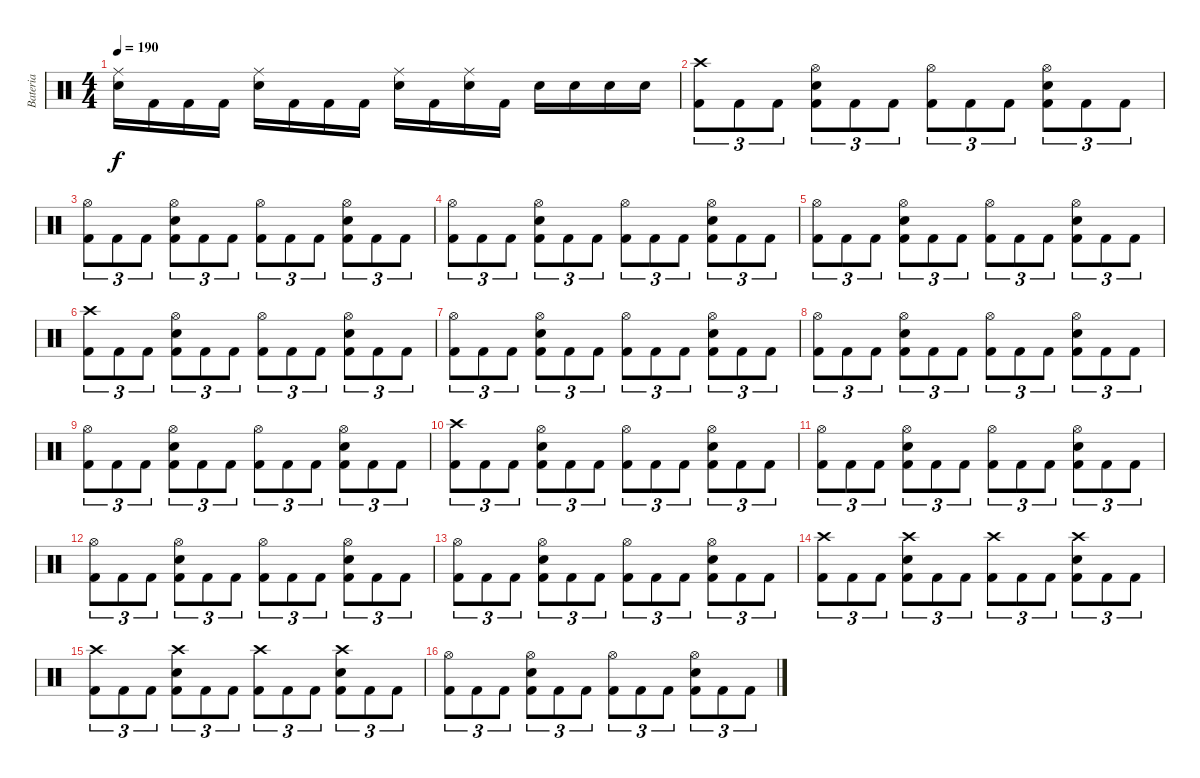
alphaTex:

\track ("Bateria" "Bateria") {instrument percussion}
\staff {score}
\articulation defaults
\ts (4 4)
\tempo 190
\clef neutral
\ks c
("Electric Snare (hit)" "Ride (middle)").16{dy f} "Kick (hit) 2".16 "Kick (hit) 2".16 "Kick (hit) 2".16 ("Electric Snare (hit)" "Ride (middle)").16 "Kick (hit) 2".16 "Kick (hit) 2".16 "Kick (hit) 2".16 ("Electric Snare (hit)" "Ride (middle)").16 "Kick (hit) 2".16 ("Electric Snare (hit)" "Ride (middle)").16 "Kick (hit) 2".16 "Electric Snare (hit)".16 "Electric Snare (hit)".16 "Electric Snare (hit)".16 "Electric Snare (hit)".16 |
("Crash high (hit)" "Kick (hit) 2").8{tu (3 2)} "Kick (hit) 2".8{tu (3 2)} "Kick (hit) 2".8{tu (3 2)} ("Hi-Hat (open)" "Electric Snare (hit)" "Kick (hit) 2").8{tu (3 2)} "Kick (hit) 2".8{tu (3 2)} "Kick (hit) 2".8{tu (3 2)} ("Hi-Hat (open)" "Kick (hit) 2").8{tu (3 2)} "Kick (hit) 2".8{tu (3 2)} "Kick (hit) 2".8{tu (3 2)} ("Hi-Hat (open)" "Electric Snare (hit)" "Kick (hit) 2").8{tu (3 2)} "Kick (hit) 2".8{tu (3 2)} "Kick (hit) 2".8{tu (3 2)} |
("Hi-Hat (open)" "Kick (hit) 2").8{tu (3 2)} "Kick (hit) 2".8{tu (3 2)} "Kick (hit) 2".8{tu (3 2)} ("Hi-Hat (open)" "Electric Snare (hit)" "Kick (hit) 2").8{tu (3 2)} "Kick (hit) 2".8{tu (3 2)} "Kick (hit) 2".8{tu (3 2)} ("Hi-Hat (open)" "Kick (hit) 2").8{tu (3 2)} "Kick (hit) 2".8{tu (3 2)} "Kick (hit) 2".8{tu (3 2)} ("Hi-Hat (open)" "Electric Snare (hit)" "Kick (hit) 2").8{tu (3 2)} "Kick (hit) 2".8{tu (3 2)} "Kick (hit) 2".8{tu (3 2)} |
("Hi-Hat (open)" "Kick (hit) 2").8{tu (3 2)} "Kick (hit) 2".8{tu (3 2)} "Kick (hit) 2".8{tu (3 2)} ("Hi-Hat (open)" "Electric Snare (hit)" "Kick (hit) 2").8{tu (3 2)} "Kick (hit) 2".8{tu (3 2)} "Kick (hit) 2".8{tu (3 2)} ("Hi-Hat (open)" "Kick (hit) 2").8{tu (3 2)} "Kick (hit) 2".8{tu (3 2)} "Kick (hit) 2".8{tu (3 2)} ("Hi-Hat (open)" "Electric Snare (hit)" "Kick (hit) 2").8{tu (3 2)} "Kick (hit) 2".8{tu (3 2)} "Kick (hit) 2".8{tu (3 2)} |
("Hi-Hat (open)" "Kick (hit) 2").8{tu (3 2)} "Kick (hit) 2".8{tu (3 2)} "Kick (hit) 2".8{tu (3 2)} ("Hi-Hat (open)" "Electric Snare (hit)" "Kick (hit) 2").8{tu (3 2)} "Kick (hit) 2".8{tu (3 2)} "Kick (hit) 2".8{tu (3 2)} ("Hi-Hat (open)" "Kick (hit) 2").8{tu (3 2)} "Kick (hit) 2".8{tu (3 2)} "Kick (hit) 2".8{tu (3 2)} ("Hi-Hat (open)" "Electric Snare (hit)" "Kick (hit) 2").8{tu (3 2)} "Kick (hit) 2".8{tu (3 2)} "Kick (hit) 2".8{tu (3 2)} |
("Crash high (hit)" "Kick (hit) 2").8{tu (3 2)} "Kick (hit) 2".8{tu (3 2)} "Kick (hit) 2".8{tu (3 2)} ("Hi-Hat (open)" "Electric Snare (hit)" "Kick (hit) 2").8{tu (3 2)} "Kick (hit) 2".8{tu (3 2)} "Kick (hit) 2".8{tu (3 2)} ("Hi-Hat (open)" "Kick (hit) 2").8{tu (3 2)} "Kick (hit) 2".8{tu (3 2)} "Kick (hit) 2".8{tu (3 2)} ("Hi-Hat (open)" "Electric Snare (hit)" "Kick (hit) 2").8{tu (3 2)} "Kick (hit) 2".8{tu (3 2)} "Kick (hit) 2".8{tu (3 2)} |
("Hi-Hat (open)" "Kick (hit) 2").8{tu (3 2)} "Kick (hit) 2".8{tu (3 2)} "Kick (hit) 2".8{tu (3 2)} ("Hi-Hat (open)" "Electric Snare (hit)" "Kick (hit) 2").8{tu (3 2)} "Kick (hit) 2".8{tu (3 2)} "Kick (hit) 2".8{tu (3 2)} ("Hi-Hat (open)" "Kick (hit) 2").8{tu (3 2)} "Kick (hit) 2".8{tu (3 2)} "Kick (hit) 2".8{tu (3 2)} ("Hi-Hat (open)" "Electric Snare (hit)" "Kick (hit) 2").8{tu (3 2)} "Kick (hit) 2".8{tu (3 2)} "Kick (hit) 2".8{tu (3 2)} |
("Hi-Hat (open)" "Kick (hit) 2").8{tu (3 2)} "Kick (hit) 2".8{tu (3 2)} "Kick (hit) 2".8{tu (3 2)} ("Hi-Hat (open)" "Electric Snare (hit)" "Kick (hit) 2").8{tu (3 2)} "Kick (hit) 2".8{tu (3 2)} "Kick (hit) 2".8{tu (3 2)} ("Hi-Hat (open)" "Kick (hit) 2").8{tu (3 2)} "Kick (hit) 2".8{tu (3 2)} "Kick (hit) 2".8{tu (3 2)} ("Hi-Hat (open)" "Electric Snare (hit)" "Kick (hit) 2").8{tu (3 2)} "Kick (hit) 2".8{tu (3 2)} "Kick (hit) 2".8{tu (3 2)} |
("Hi-Hat (open)" "Kick (hit) 2").8{tu (3 2)} "Kick (hit) 2".8{tu (3 2)} "Kick (hit) 2".8{tu (3 2)} ("Hi-Hat (open)" "Electric Snare (hit)" "Kick (hit) 2").8{tu (3 2)} "Kick (hit) 2".8{tu (3 2)} "Kick (hit) 2".8{tu (3 2)} ("Hi-Hat (open)" "Kick (hit) 2").8{tu (3 2)} "Kick (hit) 2".8{tu (3 2)} "Kick (hit) 2".8{tu (3 2)} ("Hi-Hat (open)" "Electric Snare (hit)" "Kick (hit) 2").8{tu (3 2)} "Kick (hit) 2".8{tu (3 2)} "Kick (hit) 2".8{tu (3 2)} |
("Crash high (hit)" "Kick (hit) 2").8{tu (3 2)} "Kick (hit) 2".8{tu (3 2)} "Kick (hit) 2".8{tu (3 2)} ("Hi-Hat (open)" "Electric Snare (hit)" "Kick (hit) 2").8{tu (3 2)} "Kick (hit) 2".8{tu (3 2)} "Kick (hit) 2".8{tu (3 2)} ("Hi-Hat (open)" "Kick (hit) 2").8{tu (3 2)} "Kick (hit) 2".8{tu (3 2)} "Kick (hit) 2".8{tu (3 2)} ("Hi-Hat (open)" "Electric Snare (hit)" "Kick (hit) 2").8{tu (3 2)} "Kick (hit) 2".8{tu (3 2)} "Kick (hit) 2".8{tu (3 2)} |
("Hi-Hat (open)" "Kick (hit) 2").8{tu (3 2)} "Kick (hit) 2".8{tu (3 2)} "Kick (hit) 2".8{tu (3 2)} ("Hi-Hat (open)" "Electric Snare (hit)" "Kick (hit) 2").8{tu (3 2)} "Kick (hit) 2".8{tu (3 2)} "Kick (hit) 2".8{tu (3 2)} ("Hi-Hat (open)" "Kick (hit) 2").8{tu (3 2)} "Kick (hit) 2".8{tu (3 2)} "Kick (hit) 2".8{tu (3 2)} ("Hi-Hat (open)" "Electric Snare (hit)" "Kick (hit) 2").8{tu (3 2)} "Kick (hit) 2".8{tu (3 2)} "Kick (hit) 2".8{tu (3 2)} |
("Hi-Hat (open)" "Kick (hit) 2").8{tu (3 2)} "Kick (hit) 2".8{tu (3 2)} "Kick (hit) 2".8{tu (3 2)} ("Hi-Hat (open)" "Electric Snare (hit)" "Kick (hit) 2").8{tu (3 2)} "Kick (hit) 2".8{tu (3 2)} "Kick (hit) 2".8{tu (3 2)} ("Hi-Hat (open)" "Kick (hit) 2").8{tu (3 2)} "Kick (hit) 2".8{tu (3 2)} "Kick (hit) 2".8{tu (3 2)} ("Hi-Hat (open)" "Electric Snare (hit)" "Kick (hit) 2").8{tu (3 2)} "Kick (hit) 2".8{tu (3 2)} "Kick (hit) 2".8{tu (3 2)} |
("Hi-Hat (open)" "Kick (hit) 2").8{tu (3 2)} "Kick (hit) 2".8{tu (3 2)} "Kick (hit) 2".8{tu (3 2)} ("Hi-Hat (open)" "Electric Snare (hit)" "Kick (hit) 2").8{tu (3 2)} "Kick (hit) 2".8{tu (3 2)} "Kick (hit) 2".8{tu (3 2)} ("Hi-Hat (open)" "Kick (hit) 2").8{tu (3 2)} "Kick (hit) 2".8{tu (3 2)} "Kick (hit) 2".8{tu (3 2)} ("Hi-Hat (open)" "Electric Snare (hit)" "Kick (hit) 2").8{tu (3 2)} "Kick (hit) 2".8{tu (3 2)} "Kick (hit) 2".8{tu (3 2)} |
("Crash high (hit)" "Kick (hit) 2").8{tu (3 2)} "Kick (hit) 2".8{tu (3 2)} "Kick (hit) 2".8{tu (3 2)} ("Crash high (hit)" "Electric Snare (hit)" "Kick (hit) 2").8{tu (3 2)} "Kick (hit) 2".8{tu (3 2)} "Kick (hit) 2".8{tu (3 2)} ("Crash high (hit)" "Kick (hit) 2").8{tu (3 2)} "Kick (hit) 2".8{tu (3 2)} "Kick (hit) 2".8{tu (3 2)} ("Crash high (hit)" "Electric Snare (hit)" "Kick (hit) 2").8{tu (3 2)} "Kick (hit) 2".8{tu (3 2)} "Kick (hit) 2".8{tu (3 2)} |
("Crash high (hit)" "Kick (hit) 2").8{tu (3 2)} "Kick (hit) 2".8{tu (3 2)} "Kick (hit) 2".8{tu (3 2)} ("Crash high (hit)" "Electric Snare (hit)" "Kick (hit) 2").8{tu (3 2)} "Kick (hit) 2".8{tu (3 2)} "Kick (hit) 2".8{tu (3 2)} ("Crash high (hit)" "Kick (hit) 2").8{tu (3 2)} "Kick (hit) 2".8{tu (3 2)} "Kick (hit) 2".8{tu (3 2)} ("Crash high (hit)" "Electric Snare (hit)" "Kick (hit) 2").8{tu (3 2)} "Kick (hit) 2".8{tu (3 2)} "Kick (hit) 2".8{tu (3 2)} |
("Hi-Hat (open)" "Kick (hit) 2").8{tu (3 2)} "Kick (hit) 2".8{tu (3 2)} "Kick (hit) 2".8{tu (3 2)} ("Hi-Hat (open)" "Electric Snare (hit)" "Kick (hit) 2").8{tu (3 2)} "Kick (hit) 2".8{tu (3 2)} "Kick (hit) 2".8{tu (3 2)} ("Hi-Hat (open)" "Kick (hit) 2").8{tu (3 2)} "Kick (hit) 2".8{tu (3 2)} "Kick (hit) 2".8{tu (3 2)} ("Hi-Hat (open)" "Electric Snare (hit)" "Kick (hit) 2").8{tu (3 2)} "Kick (hit) 2".8{tu (3 2)} "Kick (hit) 2".8{tu (3 2)}
